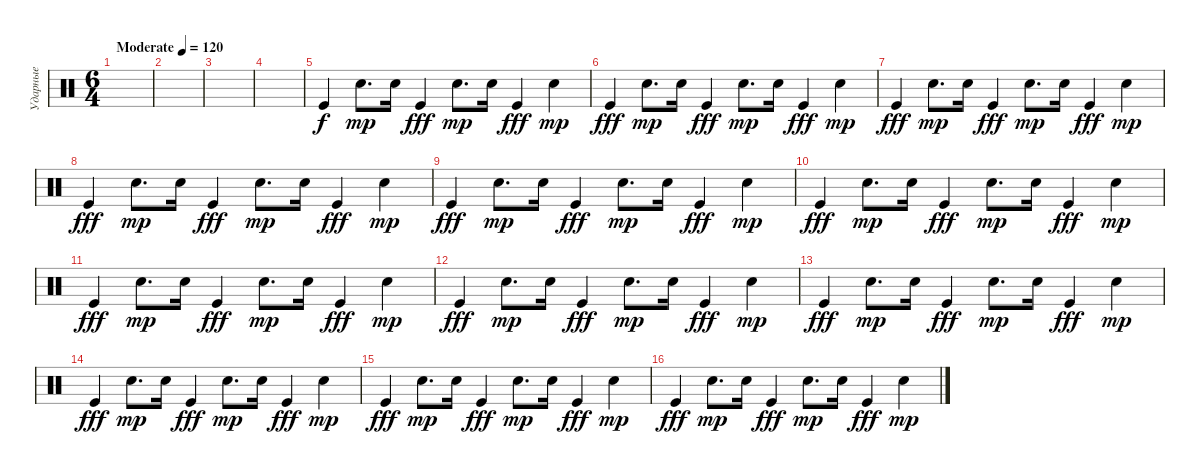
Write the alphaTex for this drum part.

\track ("Ударные" "Ударные") {instrument percussion}
\staff {score}
\articulation defaults
\ts (6 4)
\tempo (120 "Moderate")
\clef neutral
\ks c
|
|
|
|
"Kick (hit)".4 "Snare (hit) 2".8{d dy mp} "Snare (hit) 2".16 "Kick (hit)".4{dy fff} "Snare (hit) 2".8{d dy mp} "Snare (hit) 2".16 "Kick (hit)".4{dy fff} "Snare (hit) 2".4{dy mp} |
"Kick (hit)".4{dy fff} "Snare (hit) 2".8{d dy mp} "Snare (hit) 2".16 "Kick (hit)".4{dy fff} "Snare (hit) 2".8{d dy mp} "Snare (hit) 2".16 "Kick (hit)".4{dy fff} "Snare (hit) 2".4{dy mp} |
"Kick (hit)".4{dy fff} "Snare (hit) 2".8{d dy mp} "Snare (hit) 2".16 "Kick (hit)".4{dy fff} "Snare (hit) 2".8{d dy mp} "Snare (hit) 2".16 "Kick (hit)".4{dy fff} "Snare (hit) 2".4{dy mp} |
"Kick (hit)".4{dy fff} "Snare (hit) 2".8{d dy mp} "Snare (hit) 2".16 "Kick (hit)".4{dy fff} "Snare (hit) 2".8{d dy mp} "Snare (hit) 2".16 "Kick (hit)".4{dy fff} "Snare (hit) 2".4{dy mp} |
"Kick (hit)".4{dy fff} "Snare (hit) 2".8{d dy mp} "Snare (hit) 2".16 "Kick (hit)".4{dy fff} "Snare (hit) 2".8{d dy mp} "Snare (hit) 2".16 "Kick (hit)".4{dy fff} "Snare (hit) 2".4{dy mp} |
"Kick (hit)".4{dy fff} "Snare (hit) 2".8{d dy mp} "Snare (hit) 2".16 "Kick (hit)".4{dy fff} "Snare (hit) 2".8{d dy mp} "Snare (hit) 2".16 "Kick (hit)".4{dy fff} "Snare (hit) 2".4{dy mp} |
"Kick (hit)".4{dy fff} "Snare (hit) 2".8{d dy mp} "Snare (hit) 2".16 "Kick (hit)".4{dy fff} "Snare (hit) 2".8{d dy mp} "Snare (hit) 2".16 "Kick (hit)".4{dy fff} "Snare (hit) 2".4{dy mp} |
"Kick (hit)".4{dy fff} "Snare (hit) 2".8{d dy mp} "Snare (hit) 2".16 "Kick (hit)".4{dy fff} "Snare (hit) 2".8{d dy mp} "Snare (hit) 2".16 "Kick (hit)".4{dy fff} "Snare (hit) 2".4{dy mp} |
"Kick (hit)".4{dy fff} "Snare (hit) 2".8{d dy mp} "Snare (hit) 2".16 "Kick (hit)".4{dy fff} "Snare (hit) 2".8{d dy mp} "Snare (hit) 2".16 "Kick (hit)".4{dy fff} "Snare (hit) 2".4{dy mp} |
"Kick (hit)".4{dy fff} "Snare (hit) 2".8{d dy mp} "Snare (hit) 2".16 "Kick (hit)".4{dy fff} "Snare (hit) 2".8{d dy mp} "Snare (hit) 2".16 "Kick (hit)".4{dy fff} "Snare (hit) 2".4{dy mp} |
"Kick (hit)".4{dy fff} "Snare (hit) 2".8{d dy mp} "Snare (hit) 2".16 "Kick (hit)".4{dy fff} "Snare (hit) 2".8{d dy mp} "Snare (hit) 2".16 "Kick (hit)".4{dy fff} "Snare (hit) 2".4{dy mp} |
"Kick (hit)".4{dy fff} "Snare (hit) 2".8{d dy mp} "Snare (hit) 2".16 "Kick (hit)".4{dy fff} "Snare (hit) 2".8{d dy mp} "Snare (hit) 2".16 "Kick (hit)".4{dy fff} "Snare (hit) 2".4{dy mp}
